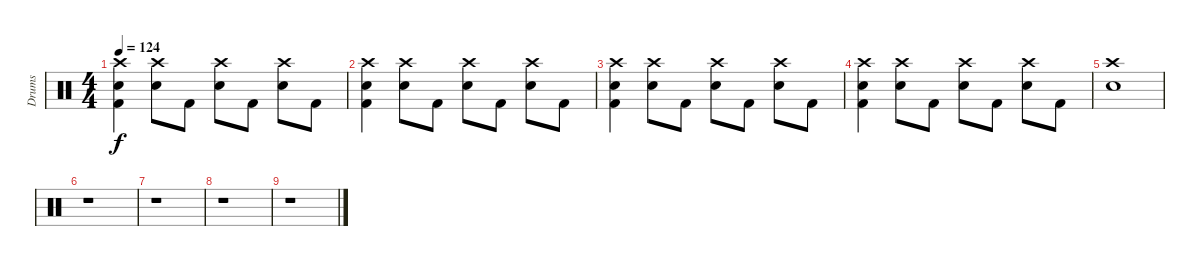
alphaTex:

\track ("Drums" "Drums") {instrument percussion}
\staff {score}
\articulation defaults
\ts (4 4)
\tempo 124
\clef neutral
\ks c
("Crash high (hit)" "Electric Snare (hit)" "Kick (hit) 2").4{dy f} ("Crash high (hit)" "Electric Snare (hit)").8 "Kick (hit) 2".8 ("Crash high (hit)" "Electric Snare (hit)").8 "Kick (hit) 2".8 ("Crash high (hit)" "Electric Snare (hit)").8 "Kick (hit) 2".8 |
("Crash high (hit)" "Electric Snare (hit)" "Kick (hit) 2").4 ("Crash high (hit)" "Electric Snare (hit)").8 "Kick (hit) 2".8 ("Crash high (hit)" "Electric Snare (hit)").8 "Kick (hit) 2".8 ("Crash high (hit)" "Electric Snare (hit)").8 "Kick (hit) 2".8 |
("Crash high (hit)" "Electric Snare (hit)" "Kick (hit) 2").4 ("Crash high (hit)" "Electric Snare (hit)").8 "Kick (hit) 2".8 ("Crash high (hit)" "Electric Snare (hit)").8 "Kick (hit) 2".8 ("Crash high (hit)" "Electric Snare (hit)").8 "Kick (hit) 2".8 |
("Crash high (hit)" "Electric Snare (hit)" "Kick (hit) 2").4 ("Crash high (hit)" "Electric Snare (hit)").8 "Kick (hit) 2".8 ("Crash high (hit)" "Electric Snare (hit)").8 "Kick (hit) 2".8 ("Crash high (hit)" "Electric Snare (hit)").8 "Kick (hit) 2".8 |
("Crash high (hit)" "Electric Snare (hit)").1 |
r.1 |
r.1 |
r.1 |
r.1
